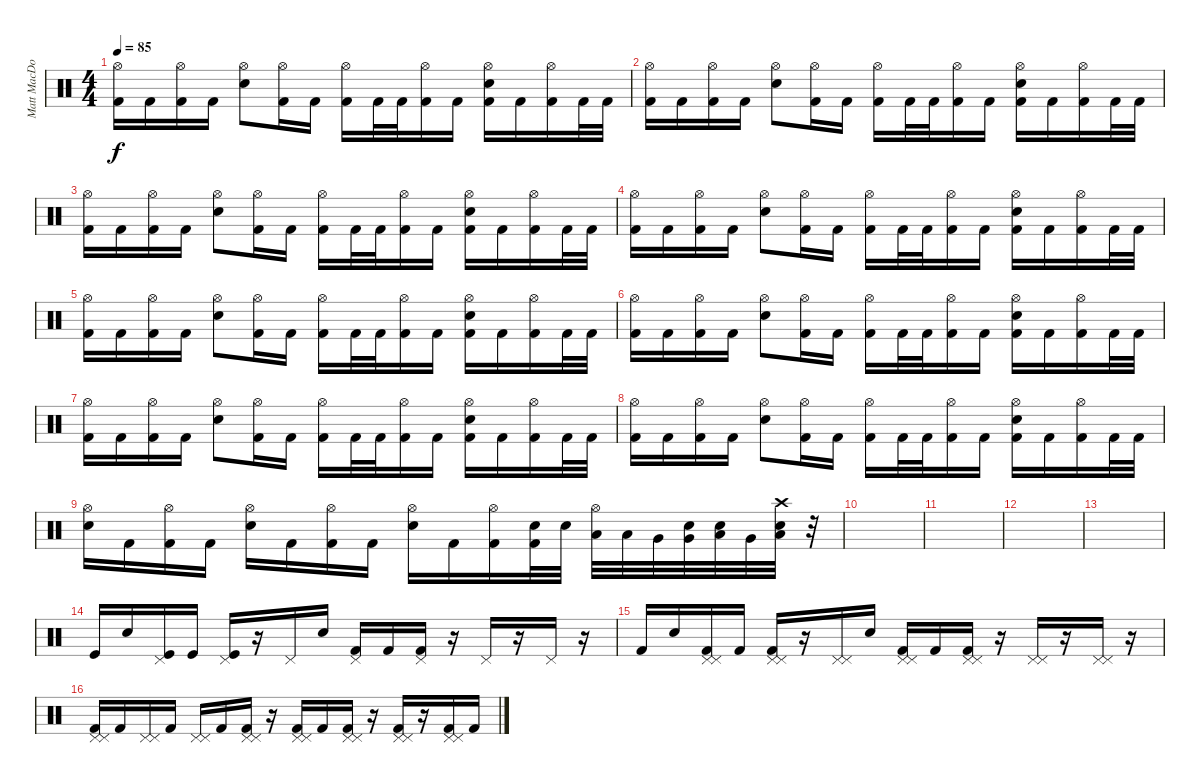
\track ("Matt MacDonough" "Matt MacDo") {instrument percussion}
\staff {score}
\articulation defaults
\ts (4 4)
\tempo 85
\clef neutral
\ks c
("Hi-Hat (open)" "Kick (hit) 2").16{dy f} "Kick (hit) 2".16 ("Hi-Hat (open)" "Kick (hit) 2").16 "Kick (hit) 2".16 ("Hi-Hat (open)" "Electric Snare (hit)").8 ("Hi-Hat (open)" "Kick (hit) 2").16 "Kick (hit) 2".16 ("Hi-Hat (open)" "Kick (hit) 2").16 "Kick (hit) 2".32 "Kick (hit) 2".32 ("Hi-Hat (open)" "Kick (hit) 2").16 "Kick (hit) 2".16 ("Hi-Hat (open)" "Electric Snare (hit)" "Kick (hit) 2").16 "Kick (hit) 2".16 ("Hi-Hat (open)" "Kick (hit) 2").16 "Kick (hit) 2".32 "Kick (hit) 2".32 |
("Hi-Hat (open)" "Kick (hit) 2").16 "Kick (hit) 2".16 ("Hi-Hat (open)" "Kick (hit) 2").16 "Kick (hit) 2".16 ("Hi-Hat (open)" "Electric Snare (hit)").8 ("Hi-Hat (open)" "Kick (hit) 2").16 "Kick (hit) 2".16 ("Hi-Hat (open)" "Kick (hit) 2").16 "Kick (hit) 2".32 "Kick (hit) 2".32 ("Hi-Hat (open)" "Kick (hit) 2").16 "Kick (hit) 2".16 ("Hi-Hat (open)" "Electric Snare (hit)" "Kick (hit) 2").16 "Kick (hit) 2".16 ("Hi-Hat (open)" "Kick (hit) 2").16 "Kick (hit) 2".32 "Kick (hit) 2".32 |
("Hi-Hat (open)" "Kick (hit) 2").16 "Kick (hit) 2".16 ("Hi-Hat (open)" "Kick (hit) 2").16 "Kick (hit) 2".16 ("Hi-Hat (open)" "Electric Snare (hit)").8 ("Hi-Hat (open)" "Kick (hit) 2").16 "Kick (hit) 2".16 ("Hi-Hat (open)" "Kick (hit) 2").16 "Kick (hit) 2".32 "Kick (hit) 2".32 ("Hi-Hat (open)" "Kick (hit) 2").16 "Kick (hit) 2".16 ("Hi-Hat (open)" "Electric Snare (hit)" "Kick (hit) 2").16 "Kick (hit) 2".16 ("Hi-Hat (open)" "Kick (hit) 2").16 "Kick (hit) 2".32 "Kick (hit) 2".32 |
("Hi-Hat (open)" "Kick (hit) 2").16 "Kick (hit) 2".16 ("Hi-Hat (open)" "Kick (hit) 2").16 "Kick (hit) 2".16 ("Hi-Hat (open)" "Electric Snare (hit)").8 ("Hi-Hat (open)" "Kick (hit) 2").16 "Kick (hit) 2".16 ("Hi-Hat (open)" "Kick (hit) 2").16 "Kick (hit) 2".32 "Kick (hit) 2".32 ("Hi-Hat (open)" "Kick (hit) 2").16 "Kick (hit) 2".16 ("Hi-Hat (open)" "Electric Snare (hit)" "Kick (hit) 2").16 "Kick (hit) 2".16 ("Hi-Hat (open)" "Kick (hit) 2").16 "Kick (hit) 2".32 "Kick (hit) 2".32 |
("Hi-Hat (open)" "Kick (hit) 2").16 "Kick (hit) 2".16 ("Hi-Hat (open)" "Kick (hit) 2").16 "Kick (hit) 2".16 ("Hi-Hat (open)" "Electric Snare (hit)").8 ("Hi-Hat (open)" "Kick (hit) 2").16 "Kick (hit) 2".16 ("Hi-Hat (open)" "Kick (hit) 2").16 "Kick (hit) 2".32 "Kick (hit) 2".32 ("Hi-Hat (open)" "Kick (hit) 2").16 "Kick (hit) 2".16 ("Hi-Hat (open)" "Electric Snare (hit)" "Kick (hit) 2").16 "Kick (hit) 2".16 ("Hi-Hat (open)" "Kick (hit) 2").16 "Kick (hit) 2".32 "Kick (hit) 2".32 |
("Hi-Hat (open)" "Kick (hit) 2").16 "Kick (hit) 2".16 ("Hi-Hat (open)" "Kick (hit) 2").16 "Kick (hit) 2".16 ("Hi-Hat (open)" "Electric Snare (hit)").8 ("Hi-Hat (open)" "Kick (hit) 2").16 "Kick (hit) 2".16 ("Hi-Hat (open)" "Kick (hit) 2").16 "Kick (hit) 2".32 "Kick (hit) 2".32 ("Hi-Hat (open)" "Kick (hit) 2").16 "Kick (hit) 2".16 ("Hi-Hat (open)" "Electric Snare (hit)" "Kick (hit) 2").16 "Kick (hit) 2".16 ("Hi-Hat (open)" "Kick (hit) 2").16 "Kick (hit) 2".32 "Kick (hit) 2".32 |
("Hi-Hat (open)" "Kick (hit) 2").16 "Kick (hit) 2".16 ("Hi-Hat (open)" "Kick (hit) 2").16 "Kick (hit) 2".16 ("Hi-Hat (open)" "Electric Snare (hit)").8 ("Hi-Hat (open)" "Kick (hit) 2").16 "Kick (hit) 2".16 ("Hi-Hat (open)" "Kick (hit) 2").16 "Kick (hit) 2".32 "Kick (hit) 2".32 ("Hi-Hat (open)" "Kick (hit) 2").16 "Kick (hit) 2".16 ("Hi-Hat (open)" "Electric Snare (hit)" "Kick (hit) 2").16 "Kick (hit) 2".16 ("Hi-Hat (open)" "Kick (hit) 2").16 "Kick (hit) 2".32 "Kick (hit) 2".32 |
("Hi-Hat (open)" "Kick (hit) 2").16 "Kick (hit) 2".16 ("Hi-Hat (open)" "Kick (hit) 2").16 "Kick (hit) 2".16 ("Hi-Hat (open)" "Electric Snare (hit)").8 ("Hi-Hat (open)" "Kick (hit) 2").16 "Kick (hit) 2".16 ("Hi-Hat (open)" "Kick (hit) 2").16 "Kick (hit) 2".32 "Kick (hit) 2".32 ("Hi-Hat (open)" "Kick (hit) 2").16 "Kick (hit) 2".16 ("Hi-Hat (open)" "Electric Snare (hit)" "Kick (hit) 2").16 "Kick (hit) 2".16 ("Hi-Hat (open)" "Kick (hit) 2").16 "Kick (hit) 2".32 "Kick (hit) 2".32 |
("Hi-Hat (open)" "Electric Snare (hit)").16 "Kick (hit) 2".16 ("Hi-Hat (open)" "Kick (hit) 2").16 "Kick (hit) 2".16 ("Hi-Hat (open)" "Electric Snare (hit)").16 "Kick (hit) 2".16 ("Hi-Hat (open)" "Kick (hit) 2").16 "Kick (hit) 2".16 ("Hi-Hat (open)" "Electric Snare (hit)").16 "Kick (hit) 2".16 ("Hi-Hat (open)" "Kick (hit) 2").16 ("Electric Snare (hit)" "Kick (hit) 2").32 "Electric Snare (hit)".32 ("Hi-Hat (open)" "Low Tom (hit)").32 "Low Tom (hit)".32 "Very Low Tom (hit)".32 ("Electric Snare (hit)" "Very Low Tom (hit)").32 ("Electric Snare (hit)" "Low Tom (hit)").32 "Very Low Tom (hit)".32 ("Crash high (hit)" "Snare (hit)" "Low Floor Tom (hit)").32 r.32 |
|
|
|
|
"Kick (hit)".16 "Electric Snare (hit)".16 ("Pedal Hi-Hat (hit)" "Kick (hit)").16 "Kick (hit)".16 ("Pedal Hi-Hat (hit)" "Kick (hit)").16 r.16 "Pedal Hi-Hat (hit)".16 "Electric Snare (hit)".16 ("Pedal Hi-Hat (hit)" "Kick (hit) 2").16 "Kick (hit) 2".16 ("Pedal Hi-Hat (hit)" "Kick (hit) 2").16 r.16 "Pedal Hi-Hat (hit)".16 r.16 "Pedal Hi-Hat (hit)".16 r.16 |
"Kick (hit) 2".16 "Electric Snare (hit)".16 ("Pedal Hi-Hat (hit)" "Pedal Hi-Hat (hit)" "Kick (hit) 2").16 "Kick (hit) 2".16 ("Pedal Hi-Hat (hit)" "Pedal Hi-Hat (hit)" "Kick (hit) 2").16 r.16 ("Pedal Hi-Hat (hit)" "Pedal Hi-Hat (hit)").16 "Electric Snare (hit)".16 ("Pedal Hi-Hat (hit)" "Pedal Hi-Hat (hit)" "Kick (hit) 2").16 "Kick (hit) 2".16 ("Pedal Hi-Hat (hit)" "Pedal Hi-Hat (hit)" "Kick (hit) 2").16 r.16 ("Pedal Hi-Hat (hit)" "Pedal Hi-Hat (hit)").16 r.16 ("Pedal Hi-Hat (hit)" "Pedal Hi-Hat (hit)").16 r.16 |
("Pedal Hi-Hat (hit)" "Pedal Hi-Hat (hit)" "Kick (hit) 2").16 "Kick (hit) 2".16 ("Pedal Hi-Hat (hit)" "Pedal Hi-Hat (hit)").16 "Kick (hit) 2".16 ("Pedal Hi-Hat (hit)" "Pedal Hi-Hat (hit)").16 "Kick (hit) 2".16 ("Pedal Hi-Hat (hit)" "Pedal Hi-Hat (hit)" "Kick (hit) 2").16 r.16 ("Pedal Hi-Hat (hit)" "Pedal Hi-Hat (hit)" "Kick (hit) 2").16 "Kick (hit) 2".16 ("Pedal Hi-Hat (hit)" "Pedal Hi-Hat (hit)" "Kick (hit) 2").16 r.16 ("Pedal Hi-Hat (hit)" "Pedal Hi-Hat (hit)" "Kick (hit) 2").16 r.16 ("Pedal Hi-Hat (hit)" "Pedal Hi-Hat (hit)" "Kick (hit) 2").16 "Kick (hit) 2".16
